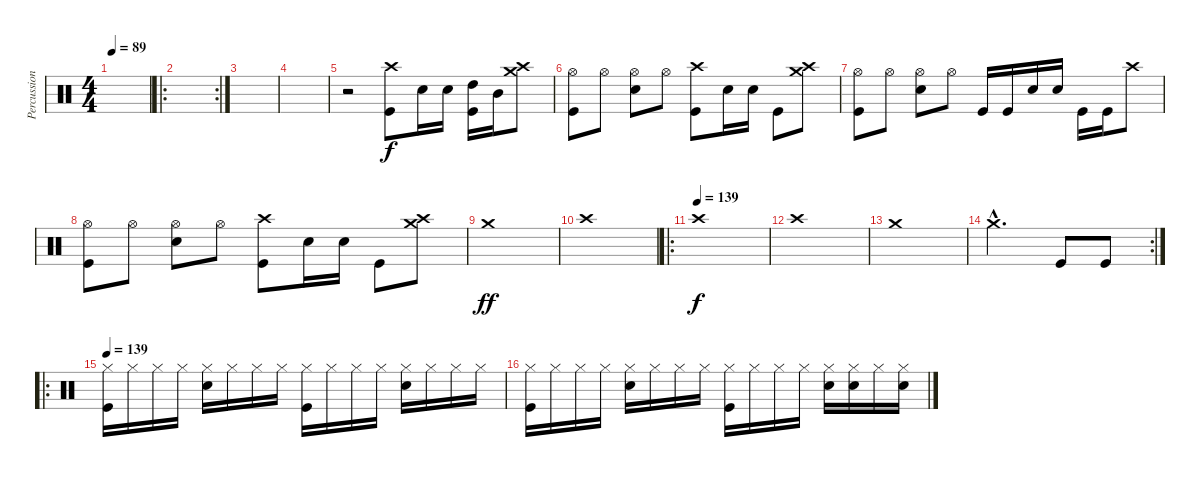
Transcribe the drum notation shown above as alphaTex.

\track ("Percussion" "Percussion") {instrument percussion}
\staff {score}
\articulation defaults
\ts (4 4)
\tempo 89
\clef neutral
\ks c
|
\ro
\rc 2
|
|
|
r.2 ("Crash high (hit)" "Kick (hit)").8 "Snare (hit) 2".16 "Snare (hit) 2".16 ("High Tom (hit)" "Kick (hit)").16 "Mid Tom (hit)".16 ("Crash high (hit)" "Crash medium (hit)").8 |
("Hi-Hat (open)" "Kick (hit)").8 "Hi-Hat (open)".8 ("Hi-Hat (open)" "Snare (hit) 2").8 "Hi-Hat (open)".8 ("Crash high (hit)" "Kick (hit)").8 "Snare (hit) 2".16 "Snare (hit) 2".16 "Kick (hit)".8 ("Crash high (hit)" "Crash medium (hit)").8 |
("Hi-Hat (open)" "Kick (hit)").8 "Hi-Hat (open)".8 ("Hi-Hat (open)" "Snare (hit) 2").8 "Hi-Hat (open)".8 "Kick (hit)".16 "Kick (hit)".16 "Snare (hit) 2".16 "Snare (hit) 2".16 "Kick (hit)".16 "Kick (hit)".16 "Crash high (hit)".8 |
("Hi-Hat (open)" "Kick (hit)").8 "Hi-Hat (open)".8 ("Hi-Hat (open)" "Snare (hit) 2").8 "Hi-Hat (open)".8 ("Crash high (hit)" "Kick (hit)").8 "Snare (hit) 2".16 "Snare (hit) 2".16 "Kick (hit)".8 ("Crash high (hit)" "Crash medium (hit)").8 |
"Crash medium (hit)".1{dy ff} |
"Crash high (hit)".1 |
\ro
\tempo (139)
"Crash high (hit)".1{dy f} |
"Crash high (hit)".1 |
"Crash medium (hit)".1 |
\rc 2 "Crash medium (hit)"{hac}.2{d} "Kick (hit)".8 "Kick (hit)".8
|
\ro
\tempo 139
("Hi-Hat (closed)" "Kick (hit)").16{volume 10} "Hi-Hat (closed)".16 "Hi-Hat (closed)".16 "Hi-Hat (closed)".16 ("Hi-Hat (closed)" "Snare (hit) 2").16 "Hi-Hat (closed)".16 "Hi-Hat (closed)".16 "Hi-Hat (closed)".16 ("Hi-Hat (closed)" "Kick (hit)").16 "Hi-Hat (closed)".16 "Hi-Hat (closed)".16 "Hi-Hat (closed)".16 ("Hi-Hat (closed)" "Snare (hit) 2").16 "Hi-Hat (closed)".16 "Hi-Hat (closed)".16 "Hi-Hat (closed)".16 |
("Hi-Hat (closed)" "Kick (hit)").16 "Hi-Hat (closed)".16 "Hi-Hat (closed)".16 "Hi-Hat (closed)".16 ("Hi-Hat (closed)" "Snare (hit) 2").16 "Hi-Hat (closed)".16 "Hi-Hat (closed)".16 "Hi-Hat (closed)".16 ("Hi-Hat (closed)" "Kick (hit)").16 "Hi-Hat (closed)".16 "Hi-Hat (closed)".16 "Hi-Hat (closed)".16 ("Hi-Hat (closed)" "Snare (hit) 2").16 ("Hi-Hat (closed)" "Snare (hit) 2").16 "Hi-Hat (closed)".16 ("Hi-Hat (closed)" "Snare (hit) 2").16
